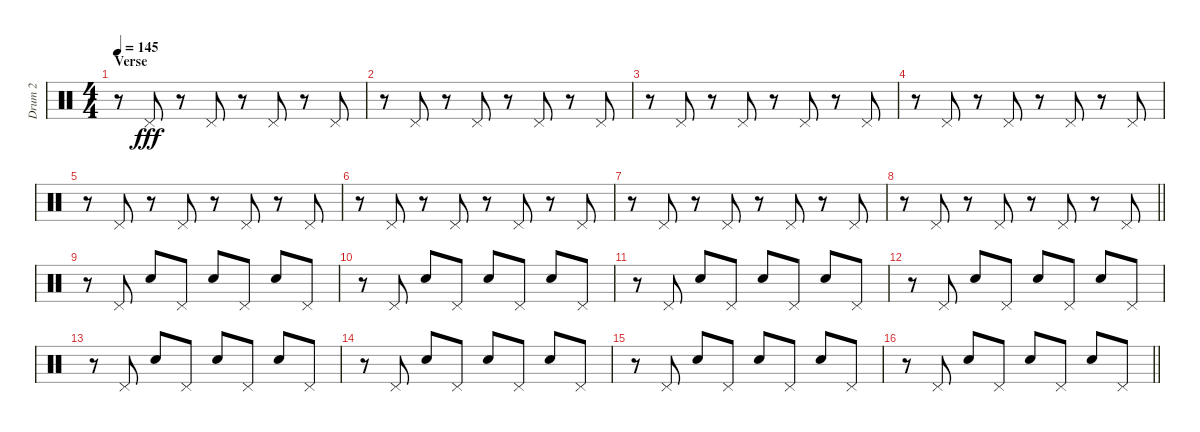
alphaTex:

\track ("Drum 2" "Drum 2") {instrument percussion}
\staff {score}
\articulation defaults
\ts (4 4)
\section ("" "Verse")
\tempo 145
\clef neutral
\ks c
r.8{dy fff} "Pedal Hi-Hat (hit)".8 r.8 "Pedal Hi-Hat (hit)".8 r.8 "Pedal Hi-Hat (hit)".8 r.8 "Pedal Hi-Hat (hit)".8 |
r.8 "Pedal Hi-Hat (hit)".8 r.8 "Pedal Hi-Hat (hit)".8 r.8 "Pedal Hi-Hat (hit)".8 r.8 "Pedal Hi-Hat (hit)".8 |
r.8 "Pedal Hi-Hat (hit)".8 r.8 "Pedal Hi-Hat (hit)".8 r.8 "Pedal Hi-Hat (hit)".8 r.8 "Pedal Hi-Hat (hit)".8 |
r.8 "Pedal Hi-Hat (hit)".8 r.8 "Pedal Hi-Hat (hit)".8 r.8 "Pedal Hi-Hat (hit)".8 r.8 "Pedal Hi-Hat (hit)".8 |
r.8 "Pedal Hi-Hat (hit)".8 r.8 "Pedal Hi-Hat (hit)".8 r.8 "Pedal Hi-Hat (hit)".8 r.8 "Pedal Hi-Hat (hit)".8 |
r.8 "Pedal Hi-Hat (hit)".8 r.8 "Pedal Hi-Hat (hit)".8 r.8 "Pedal Hi-Hat (hit)".8 r.8 "Pedal Hi-Hat (hit)".8 |
r.8 "Pedal Hi-Hat (hit)".8 r.8 "Pedal Hi-Hat (hit)".8 r.8 "Pedal Hi-Hat (hit)".8 r.8 "Pedal Hi-Hat (hit)".8 |
\barLineRight lightlight
r.8 "Pedal Hi-Hat (hit)".8 r.8 "Pedal Hi-Hat (hit)".8 r.8 "Pedal Hi-Hat (hit)".8 r.8 "Pedal Hi-Hat (hit)".8 |
r.8 "Pedal Hi-Hat (hit)".8 "Snare (hit) 2".8 "Pedal Hi-Hat (hit)".8 "Snare (hit) 2".8 "Pedal Hi-Hat (hit)".8 "Snare (hit) 2".8 "Pedal Hi-Hat (hit)".8 |
r.8 "Pedal Hi-Hat (hit)".8 "Snare (hit) 2".8 "Pedal Hi-Hat (hit)".8 "Snare (hit) 2".8 "Pedal Hi-Hat (hit)".8 "Snare (hit) 2".8 "Pedal Hi-Hat (hit)".8 |
r.8 "Pedal Hi-Hat (hit)".8 "Snare (hit) 2".8 "Pedal Hi-Hat (hit)".8 "Snare (hit) 2".8 "Pedal Hi-Hat (hit)".8 "Snare (hit) 2".8 "Pedal Hi-Hat (hit)".8 |
r.8 "Pedal Hi-Hat (hit)".8 "Snare (hit) 2".8 "Pedal Hi-Hat (hit)".8 "Snare (hit) 2".8 "Pedal Hi-Hat (hit)".8 "Snare (hit) 2".8 "Pedal Hi-Hat (hit)".8 |
r.8 "Pedal Hi-Hat (hit)".8 "Snare (hit) 2".8 "Pedal Hi-Hat (hit)".8 "Snare (hit) 2".8 "Pedal Hi-Hat (hit)".8 "Snare (hit) 2".8 "Pedal Hi-Hat (hit)".8 |
r.8 "Pedal Hi-Hat (hit)".8 "Snare (hit) 2".8 "Pedal Hi-Hat (hit)".8 "Snare (hit) 2".8 "Pedal Hi-Hat (hit)".8 "Snare (hit) 2".8 "Pedal Hi-Hat (hit)".8 |
r.8 "Pedal Hi-Hat (hit)".8 "Snare (hit) 2".8 "Pedal Hi-Hat (hit)".8 "Snare (hit) 2".8 "Pedal Hi-Hat (hit)".8 "Snare (hit) 2".8 "Pedal Hi-Hat (hit)".8 |
\barLineRight lightlight
r.8 "Pedal Hi-Hat (hit)".8 "Snare (hit) 2".8 "Pedal Hi-Hat (hit)".8 "Snare (hit) 2".8 "Pedal Hi-Hat (hit)".8 "Snare (hit) 2".8 "Pedal Hi-Hat (hit)".8
